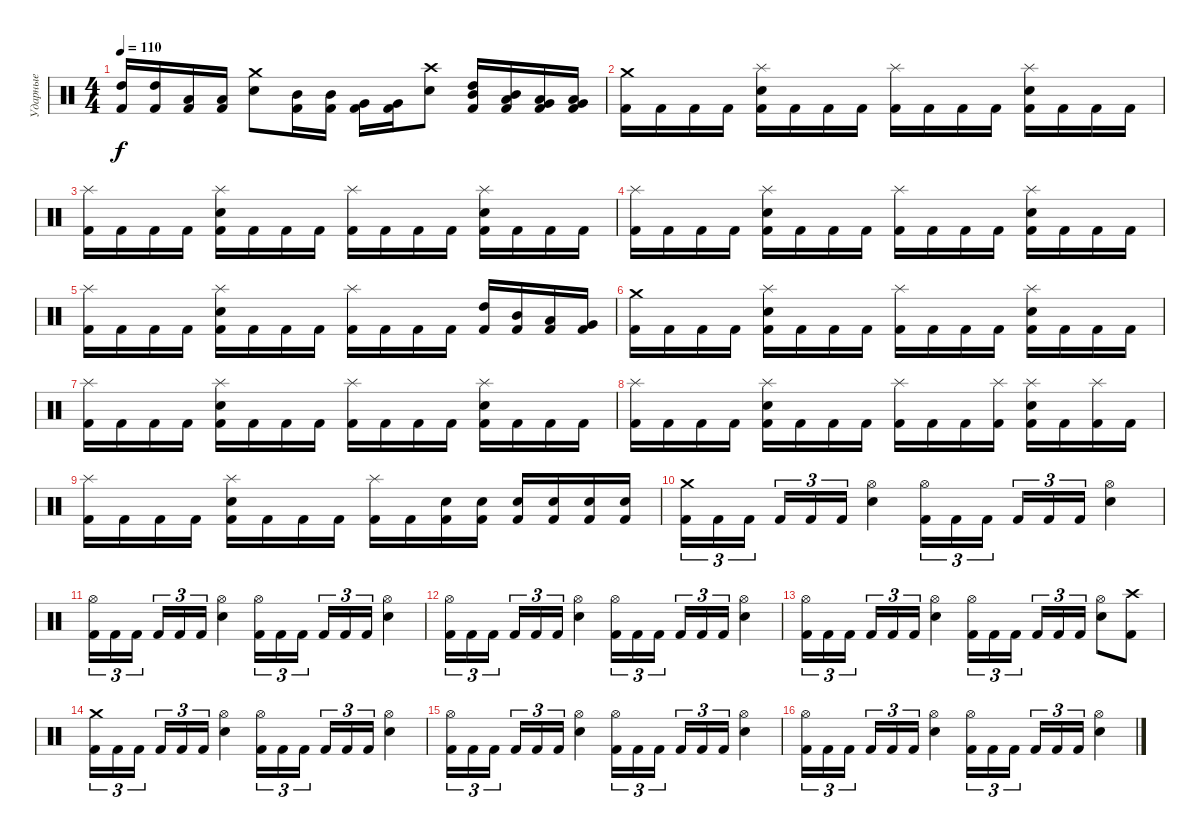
\track ("Ударные" "Ударные") {instrument percussion}
\staff {score}
\articulation defaults
\ts (4 4)
\tempo 110
\clef neutral
\ks c
("High Tom (hit)" "Kick (hit) 2").16{dy f} ("High Tom (hit)" "Kick (hit) 2").16 ("Low Tom (hit)" "Kick (hit) 2").16 ("Low Tom (hit)" "Kick (hit) 2").16 ("Crash medium (hit)" "Electric Snare (hit)").8 ("Mid Tom (hit)" "Kick (hit) 2").16 ("Mid Tom (hit)" "Kick (hit) 2").16 ("Very Low Tom (hit)" "Kick (hit) 2").16 ("Very Low Tom (hit)" "Kick (hit) 2").16 ("Crash high (hit)" "Electric Snare (hit)").8 ("High Tom (hit)" "Mid Tom (hit)" "Kick (hit) 2").16 ("Mid Tom (hit)" "Low Tom (hit)" "Kick (hit) 2").16 ("Low Tom (hit)" "Very Low Tom (hit)" "Kick (hit) 2").16 ("Very Low Tom (hit)" "Low Floor Tom (hit)" "Kick (hit) 2").16 |
("Crash medium (hit)" "Kick (hit) 2").16 "Kick (hit) 2".16 "Kick (hit) 2".16 "Kick (hit) 2".16 ("Splash (hit)" "Electric Snare (hit)" "Kick (hit) 2").16 "Kick (hit) 2".16 "Kick (hit) 2".16 "Kick (hit) 2".16 ("Splash (hit)" "Kick (hit) 2").16 "Kick (hit) 2".16 "Kick (hit) 2".16 "Kick (hit) 2".16 ("Splash (hit)" "Electric Snare (hit)" "Kick (hit) 2").16 "Kick (hit) 2".16 "Kick (hit) 2".16 "Kick (hit) 2".16 |
("Splash (hit)" "Kick (hit) 2").16 "Kick (hit) 2".16 "Kick (hit) 2".16 "Kick (hit) 2".16 ("Splash (hit)" "Electric Snare (hit)" "Kick (hit) 2").16 "Kick (hit) 2".16 "Kick (hit) 2".16 "Kick (hit) 2".16 ("Splash (hit)" "Kick (hit) 2").16 "Kick (hit) 2".16 "Kick (hit) 2".16 "Kick (hit) 2".16 ("Splash (hit)" "Electric Snare (hit)" "Kick (hit) 2").16 "Kick (hit) 2".16 "Kick (hit) 2".16 "Kick (hit) 2".16 |
("Splash (hit)" "Kick (hit) 2").16 "Kick (hit) 2".16 "Kick (hit) 2".16 "Kick (hit) 2".16 ("Splash (hit)" "Electric Snare (hit)" "Kick (hit) 2").16 "Kick (hit) 2".16 "Kick (hit) 2".16 "Kick (hit) 2".16 ("Splash (hit)" "Kick (hit) 2").16 "Kick (hit) 2".16 "Kick (hit) 2".16 "Kick (hit) 2".16 ("Splash (hit)" "Electric Snare (hit)" "Kick (hit) 2").16 "Kick (hit) 2".16 "Kick (hit) 2".16 "Kick (hit) 2".16 |
("Splash (hit)" "Kick (hit) 2").16 "Kick (hit) 2".16 "Kick (hit) 2".16 "Kick (hit) 2".16 ("Splash (hit)" "Electric Snare (hit)" "Kick (hit) 2").16 "Kick (hit) 2".16 "Kick (hit) 2".16 "Kick (hit) 2".16 ("Splash (hit)" "Kick (hit) 2").16 "Kick (hit) 2".16 "Kick (hit) 2".16 "Kick (hit) 2".16 ("High Tom (hit)" "Kick (hit) 2").16 ("Mid Tom (hit)" "Kick (hit) 2").16 ("Low Tom (hit)" "Kick (hit) 2").16 ("Very Low Tom (hit)" "Kick (hit) 2").16 |
("Crash medium (hit)" "Kick (hit) 2").16 "Kick (hit) 2".16 "Kick (hit) 2".16 "Kick (hit) 2".16 ("Splash (hit)" "Electric Snare (hit)" "Kick (hit) 2").16 "Kick (hit) 2".16 "Kick (hit) 2".16 "Kick (hit) 2".16 ("Splash (hit)" "Kick (hit) 2").16 "Kick (hit) 2".16 "Kick (hit) 2".16 "Kick (hit) 2".16 ("Splash (hit)" "Electric Snare (hit)" "Kick (hit) 2").16 "Kick (hit) 2".16 "Kick (hit) 2".16 "Kick (hit) 2".16 |
("Splash (hit)" "Kick (hit) 2").16 "Kick (hit) 2".16 "Kick (hit) 2".16 "Kick (hit) 2".16 ("Splash (hit)" "Electric Snare (hit)" "Kick (hit) 2").16 "Kick (hit) 2".16 "Kick (hit) 2".16 "Kick (hit) 2".16 ("Splash (hit)" "Kick (hit) 2").16 "Kick (hit) 2".16 "Kick (hit) 2".16 "Kick (hit) 2".16 ("Splash (hit)" "Electric Snare (hit)" "Kick (hit) 2").16 "Kick (hit) 2".16 "Kick (hit) 2".16 "Kick (hit) 2".16 |
("Splash (hit)" "Kick (hit) 2").16 "Kick (hit) 2".16 "Kick (hit) 2".16 "Kick (hit) 2".16 ("Splash (hit)" "Electric Snare (hit)" "Kick (hit) 2").16 "Kick (hit) 2".16 "Kick (hit) 2".16 "Kick (hit) 2".16 ("Splash (hit)" "Kick (hit) 2").16 "Kick (hit) 2".16 "Kick (hit) 2".16 ("Splash (hit)" "Kick (hit) 2").16 ("Splash (hit)" "Electric Snare (hit)" "Kick (hit) 2").16 "Kick (hit) 2".16 ("Splash (hit)" "Kick (hit) 2").16 "Kick (hit) 2".16 |
("Splash (hit)" "Kick (hit) 2").16 "Kick (hit) 2".16 "Kick (hit) 2".16 "Kick (hit) 2".16 ("Splash (hit)" "Electric Snare (hit)" "Kick (hit) 2").16 "Kick (hit) 2".16 "Kick (hit) 2".16 "Kick (hit) 2".16 ("Splash (hit)" "Kick (hit) 2").16 "Kick (hit) 2".16 ("Electric Snare (hit)" "Kick (hit) 2").16 ("Electric Snare (hit)" "Kick (hit) 2").16 ("Electric Snare (hit)" "Kick (hit) 2").16 ("Electric Snare (hit)" "Kick (hit) 2").16 ("Electric Snare (hit)" "Kick (hit) 2").16 ("Electric Snare (hit)" "Kick (hit) 2").16 |
("Crash medium (hit)" "Kick (hit) 2").16{tu (3 2)} "Kick (hit) 2".16{tu (3 2)} "Kick (hit) 2".16{tu (3 2) beam splitsecondary} "Kick (hit) 2".16{tu (3 2)} "Kick (hit) 2".16{tu (3 2)} "Kick (hit) 2".16{tu (3 2)} ("Hi-Hat (open)" "Electric Snare (hit)").4 ("Hi-Hat (open)" "Kick (hit) 2").16{tu (3 2)} "Kick (hit) 2".16{tu (3 2)} "Kick (hit) 2".16{tu (3 2) beam splitsecondary} "Kick (hit) 2".16{tu (3 2)} "Kick (hit) 2".16{tu (3 2)} "Kick (hit) 2".16{tu (3 2)} ("Hi-Hat (open)" "Electric Snare (hit)").4 |
("Hi-Hat (open)" "Kick (hit) 2").16{tu (3 2)} "Kick (hit) 2".16{tu (3 2)} "Kick (hit) 2".16{tu (3 2) beam splitsecondary} "Kick (hit) 2".16{tu (3 2)} "Kick (hit) 2".16{tu (3 2)} "Kick (hit) 2".16{tu (3 2)} ("Hi-Hat (open)" "Electric Snare (hit)").4 ("Hi-Hat (open)" "Kick (hit) 2").16{tu (3 2)} "Kick (hit) 2".16{tu (3 2)} "Kick (hit) 2".16{tu (3 2) beam splitsecondary} "Kick (hit) 2".16{tu (3 2)} "Kick (hit) 2".16{tu (3 2)} "Kick (hit) 2".16{tu (3 2)} ("Hi-Hat (open)" "Electric Snare (hit)").4 |
("Hi-Hat (open)" "Kick (hit) 2").16{tu (3 2)} "Kick (hit) 2".16{tu (3 2)} "Kick (hit) 2".16{tu (3 2) beam splitsecondary} "Kick (hit) 2".16{tu (3 2)} "Kick (hit) 2".16{tu (3 2)} "Kick (hit) 2".16{tu (3 2)} ("Hi-Hat (open)" "Electric Snare (hit)").4 ("Hi-Hat (open)" "Kick (hit) 2").16{tu (3 2)} "Kick (hit) 2".16{tu (3 2)} "Kick (hit) 2".16{tu (3 2) beam splitsecondary} "Kick (hit) 2".16{tu (3 2)} "Kick (hit) 2".16{tu (3 2)} "Kick (hit) 2".16{tu (3 2)} ("Hi-Hat (open)" "Electric Snare (hit)").4 |
("Hi-Hat (open)" "Kick (hit) 2").16{tu (3 2)} "Kick (hit) 2".16{tu (3 2)} "Kick (hit) 2".16{tu (3 2) beam splitsecondary} "Kick (hit) 2".16{tu (3 2)} "Kick (hit) 2".16{tu (3 2)} "Kick (hit) 2".16{tu (3 2)} ("Hi-Hat (open)" "Electric Snare (hit)").4 ("Hi-Hat (open)" "Kick (hit) 2").16{tu (3 2)} "Kick (hit) 2".16{tu (3 2)} "Kick (hit) 2".16{tu (3 2) beam splitsecondary} "Kick (hit) 2".16{tu (3 2)} "Kick (hit) 2".16{tu (3 2)} "Kick (hit) 2".16{tu (3 2)} ("Hi-Hat (open)" "Electric Snare (hit)").8 ("Crash high (hit)" "Kick (hit) 2").8 |
("Crash medium (hit)" "Kick (hit) 2").16{tu (3 2)} "Kick (hit) 2".16{tu (3 2)} "Kick (hit) 2".16{tu (3 2) beam splitsecondary} "Kick (hit) 2".16{tu (3 2)} "Kick (hit) 2".16{tu (3 2)} "Kick (hit) 2".16{tu (3 2)} ("Hi-Hat (open)" "Electric Snare (hit)").4 ("Hi-Hat (open)" "Kick (hit) 2").16{tu (3 2)} "Kick (hit) 2".16{tu (3 2)} "Kick (hit) 2".16{tu (3 2) beam splitsecondary} "Kick (hit) 2".16{tu (3 2)} "Kick (hit) 2".16{tu (3 2)} "Kick (hit) 2".16{tu (3 2)} ("Hi-Hat (open)" "Electric Snare (hit)").4 |
("Hi-Hat (open)" "Kick (hit) 2").16{tu (3 2)} "Kick (hit) 2".16{tu (3 2)} "Kick (hit) 2".16{tu (3 2) beam splitsecondary} "Kick (hit) 2".16{tu (3 2)} "Kick (hit) 2".16{tu (3 2)} "Kick (hit) 2".16{tu (3 2)} ("Hi-Hat (open)" "Electric Snare (hit)").4 ("Hi-Hat (open)" "Kick (hit) 2").16{tu (3 2)} "Kick (hit) 2".16{tu (3 2)} "Kick (hit) 2".16{tu (3 2) beam splitsecondary} "Kick (hit) 2".16{tu (3 2)} "Kick (hit) 2".16{tu (3 2)} "Kick (hit) 2".16{tu (3 2)} ("Hi-Hat (open)" "Electric Snare (hit)").4 |
("Hi-Hat (open)" "Kick (hit) 2").16{tu (3 2)} "Kick (hit) 2".16{tu (3 2)} "Kick (hit) 2".16{tu (3 2) beam splitsecondary} "Kick (hit) 2".16{tu (3 2)} "Kick (hit) 2".16{tu (3 2)} "Kick (hit) 2".16{tu (3 2)} ("Hi-Hat (open)" "Electric Snare (hit)").4 ("Hi-Hat (open)" "Kick (hit) 2").16{tu (3 2)} "Kick (hit) 2".16{tu (3 2)} "Kick (hit) 2".16{tu (3 2) beam splitsecondary} "Kick (hit) 2".16{tu (3 2)} "Kick (hit) 2".16{tu (3 2)} "Kick (hit) 2".16{tu (3 2)} ("Hi-Hat (open)" "Electric Snare (hit)").4
